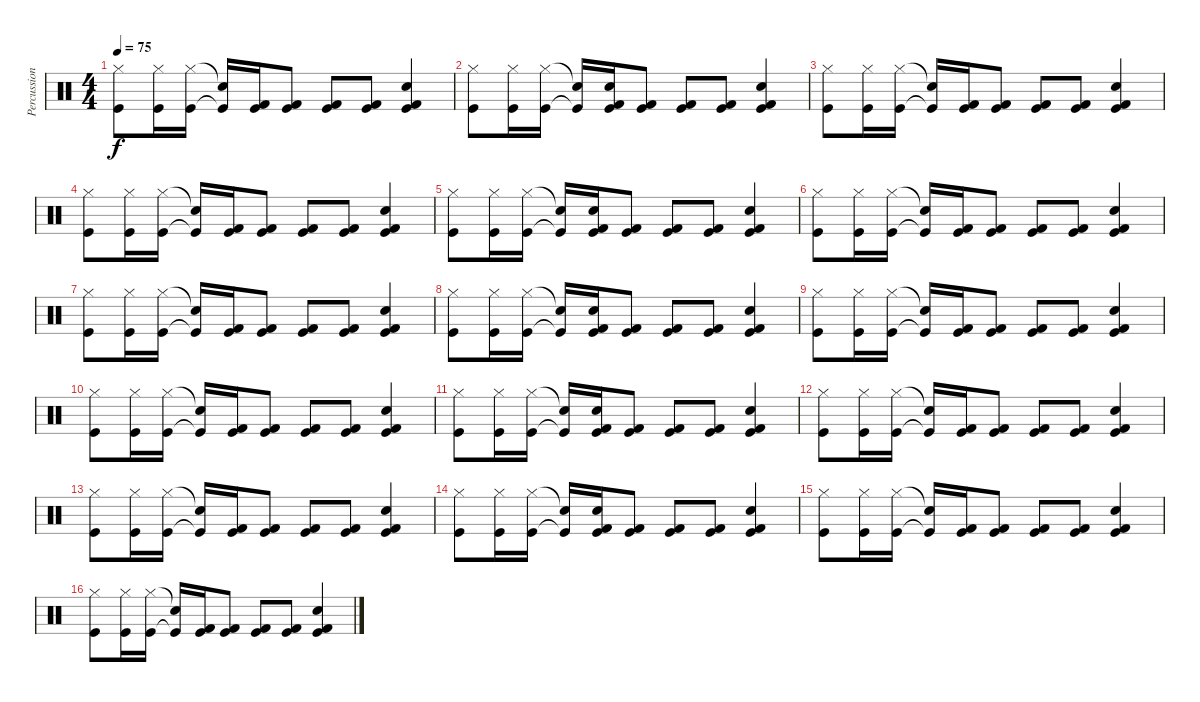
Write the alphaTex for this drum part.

\track ("Percussion" "Percussion") {instrument percussion}
\staff {score}
\articulation defaults
\ts (4 4)
\tempo 75
\clef neutral
\ks c
("Kick (hit)" "Hi-Hat (closed)").8{dy f} ("Kick (hit)" "Hi-Hat (closed)").16 ("Kick (hit)" "Hi-Hat (closed)").16 ("Kick (hit)"{t} "Snare (hit) 2"{t}).16 ("Kick (hit)" "Kick (hit) 2").16 ("Kick (hit)" "Kick (hit) 2").8 ("Kick (hit)" "Kick (hit) 2").8 ("Kick (hit)" "Kick (hit) 2").8 ("Kick (hit)" "Kick (hit) 2" "Snare (hit) 2").4 |
("Kick (hit)" "Hi-Hat (closed)").8 ("Kick (hit)" "Hi-Hat (closed)").16 ("Kick (hit)" "Hi-Hat (closed)").16 ("Kick (hit)"{t} "Snare (hit) 2"{t}).16 ("Kick (hit)" "Kick (hit) 2" "Snare (hit) 2").16 ("Kick (hit)" "Kick (hit) 2").8 ("Kick (hit)" "Kick (hit) 2").8 ("Kick (hit)" "Kick (hit) 2").8 ("Kick (hit)" "Kick (hit) 2" "Snare (hit) 2").4 |
("Kick (hit)" "Hi-Hat (closed)").8 ("Kick (hit)" "Hi-Hat (closed)").16 ("Kick (hit)" "Hi-Hat (closed)").16 ("Kick (hit)"{t} "Snare (hit) 2"{t}).16 ("Kick (hit)" "Kick (hit) 2").16 ("Kick (hit)" "Kick (hit) 2").8 ("Kick (hit)" "Kick (hit) 2").8 ("Kick (hit)" "Kick (hit) 2").8 ("Kick (hit)" "Kick (hit) 2" "Snare (hit) 2").4 |
("Kick (hit)" "Hi-Hat (closed)").8 ("Kick (hit)" "Hi-Hat (closed)").16 ("Kick (hit)" "Hi-Hat (closed)").16 ("Kick (hit)"{t} "Snare (hit) 2"{t}).16 ("Kick (hit)" "Kick (hit) 2").16 ("Kick (hit)" "Kick (hit) 2").8 ("Kick (hit)" "Kick (hit) 2").8 ("Kick (hit)" "Kick (hit) 2").8 ("Kick (hit)" "Kick (hit) 2" "Snare (hit) 2").4 |
("Kick (hit)" "Hi-Hat (closed)").8 ("Kick (hit)" "Hi-Hat (closed)").16 ("Kick (hit)" "Hi-Hat (closed)").16 ("Kick (hit)"{t} "Snare (hit) 2"{t}).16 ("Kick (hit)" "Kick (hit) 2" "Snare (hit) 2").16 ("Kick (hit)" "Kick (hit) 2").8 ("Kick (hit)" "Kick (hit) 2").8 ("Kick (hit)" "Kick (hit) 2").8 ("Kick (hit)" "Kick (hit) 2" "Snare (hit) 2").4 |
("Kick (hit)" "Hi-Hat (closed)").8 ("Kick (hit)" "Hi-Hat (closed)").16 ("Kick (hit)" "Hi-Hat (closed)").16 ("Kick (hit)"{t} "Snare (hit) 2"{t}).16 ("Kick (hit)" "Kick (hit) 2").16 ("Kick (hit)" "Kick (hit) 2").8 ("Kick (hit)" "Kick (hit) 2").8 ("Kick (hit)" "Kick (hit) 2").8 ("Kick (hit)" "Kick (hit) 2" "Snare (hit) 2").4 |
("Kick (hit)" "Hi-Hat (closed)").8 ("Kick (hit)" "Hi-Hat (closed)").16 ("Kick (hit)" "Hi-Hat (closed)").16 ("Kick (hit)"{t} "Snare (hit) 2"{t}).16 ("Kick (hit)" "Kick (hit) 2").16 ("Kick (hit)" "Kick (hit) 2").8 ("Kick (hit)" "Kick (hit) 2").8 ("Kick (hit)" "Kick (hit) 2").8 ("Kick (hit)" "Kick (hit) 2" "Snare (hit) 2").4 |
("Kick (hit)" "Hi-Hat (closed)").8 ("Kick (hit)" "Hi-Hat (closed)").16 ("Kick (hit)" "Hi-Hat (closed)").16 ("Kick (hit)"{t} "Snare (hit) 2"{t}).16 ("Kick (hit)" "Kick (hit) 2" "Snare (hit) 2").16 ("Kick (hit)" "Kick (hit) 2").8 ("Kick (hit)" "Kick (hit) 2").8 ("Kick (hit)" "Kick (hit) 2").8 ("Kick (hit)" "Kick (hit) 2" "Snare (hit) 2").4 |
("Kick (hit)" "Hi-Hat (closed)").8 ("Kick (hit)" "Hi-Hat (closed)").16 ("Kick (hit)" "Hi-Hat (closed)").16 ("Kick (hit)"{t} "Snare (hit) 2"{t}).16 ("Kick (hit)" "Kick (hit) 2").16 ("Kick (hit)" "Kick (hit) 2").8 ("Kick (hit)" "Kick (hit) 2").8 ("Kick (hit)" "Kick (hit) 2").8 ("Kick (hit)" "Kick (hit) 2" "Snare (hit) 2").4 |
("Kick (hit)" "Hi-Hat (closed)").8 ("Kick (hit)" "Hi-Hat (closed)").16 ("Kick (hit)" "Hi-Hat (closed)").16 ("Kick (hit)"{t} "Snare (hit) 2"{t}).16 ("Kick (hit)" "Kick (hit) 2").16 ("Kick (hit)" "Kick (hit) 2").8 ("Kick (hit)" "Kick (hit) 2").8 ("Kick (hit)" "Kick (hit) 2").8 ("Kick (hit)" "Kick (hit) 2" "Snare (hit) 2").4 |
("Kick (hit)" "Hi-Hat (closed)").8 ("Kick (hit)" "Hi-Hat (closed)").16 ("Kick (hit)" "Hi-Hat (closed)").16 ("Kick (hit)"{t} "Snare (hit) 2"{t}).16 ("Kick (hit)" "Kick (hit) 2" "Snare (hit) 2").16 ("Kick (hit)" "Kick (hit) 2").8 ("Kick (hit)" "Kick (hit) 2").8 ("Kick (hit)" "Kick (hit) 2").8 ("Kick (hit)" "Kick (hit) 2" "Snare (hit) 2").4 |
("Kick (hit)" "Hi-Hat (closed)").8 ("Kick (hit)" "Hi-Hat (closed)").16 ("Kick (hit)" "Hi-Hat (closed)").16 ("Kick (hit)"{t} "Snare (hit) 2"{t}).16 ("Kick (hit)" "Kick (hit) 2").16 ("Kick (hit)" "Kick (hit) 2").8 ("Kick (hit)" "Kick (hit) 2").8 ("Kick (hit)" "Kick (hit) 2").8 ("Kick (hit)" "Kick (hit) 2" "Snare (hit) 2").4 |
("Kick (hit)" "Hi-Hat (closed)").8 ("Kick (hit)" "Hi-Hat (closed)").16 ("Kick (hit)" "Hi-Hat (closed)").16 ("Kick (hit)"{t} "Snare (hit) 2"{t}).16 ("Kick (hit)" "Kick (hit) 2").16 ("Kick (hit)" "Kick (hit) 2").8 ("Kick (hit)" "Kick (hit) 2").8 ("Kick (hit)" "Kick (hit) 2").8 ("Kick (hit)" "Kick (hit) 2" "Snare (hit) 2").4 |
("Kick (hit)" "Hi-Hat (closed)").8 ("Kick (hit)" "Hi-Hat (closed)").16 ("Kick (hit)" "Hi-Hat (closed)").16 ("Kick (hit)"{t} "Snare (hit) 2"{t}).16 ("Kick (hit)" "Kick (hit) 2" "Snare (hit) 2").16 ("Kick (hit)" "Kick (hit) 2").8 ("Kick (hit)" "Kick (hit) 2").8 ("Kick (hit)" "Kick (hit) 2").8 ("Kick (hit)" "Kick (hit) 2" "Snare (hit) 2").4 |
("Kick (hit)" "Hi-Hat (closed)").8 ("Kick (hit)" "Hi-Hat (closed)").16 ("Kick (hit)" "Hi-Hat (closed)").16 ("Kick (hit)"{t} "Snare (hit) 2"{t}).16 ("Kick (hit)" "Kick (hit) 2").16 ("Kick (hit)" "Kick (hit) 2").8 ("Kick (hit)" "Kick (hit) 2").8 ("Kick (hit)" "Kick (hit) 2").8 ("Kick (hit)" "Kick (hit) 2" "Snare (hit) 2").4 |
("Kick (hit)" "Hi-Hat (closed)").8 ("Kick (hit)" "Hi-Hat (closed)").16 ("Kick (hit)" "Hi-Hat (closed)").16 ("Kick (hit)"{t} "Snare (hit) 2"{t}).16 ("Kick (hit)" "Kick (hit) 2").16 ("Kick (hit)" "Kick (hit) 2").8 ("Kick (hit)" "Kick (hit) 2").8 ("Kick (hit)" "Kick (hit) 2").8 ("Kick (hit)" "Kick (hit) 2" "Snare (hit) 2").4
